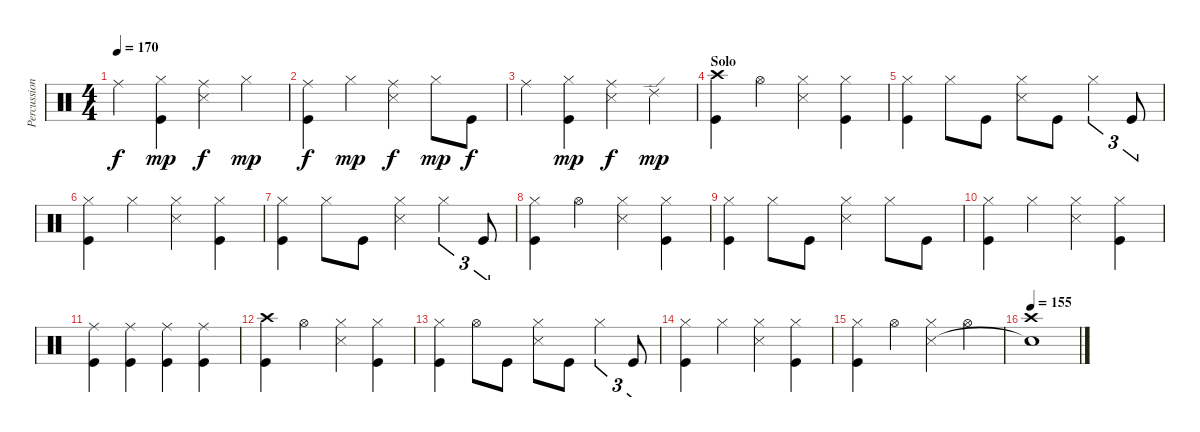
\track ("Percussion" "Percussion") {instrument percussion}
\staff {score}
\articulation defaults
\ts (4 4)
\tempo 170
\clef neutral
\ks c "Ride (middle)".4{dy f}
("Hi-Hat (closed)" "Kick (hit)").4{dy mp} ("Ride (middle)" "Snare (side stick) 3").4{dy f} "Hi-Hat (closed)".4{dy mp} |
("Ride (middle)" "Kick (hit)").4{dy f} "Hi-Hat (closed)".4{dy mp} ("Ride (middle)" "Snare (side stick) 3").4{dy f} "Hi-Hat (closed)".8{dy mp} "Kick (hit)".8{dy f} |
"Ride (middle)".4 ("Hi-Hat (closed)" "Kick (hit)").4{dy mp} ("Ride (middle)" "Snare (side stick) 3").4{dy f} "Ride (edge) 2".4{dy mp} |
\section ("" "Solo")
("Crash high (hit)" "Kick (hit)").4 "Hi-Hat (open)".4 ("Hi-Hat (closed)" "Snare (side stick) 3").4 ("Hi-Hat (closed)" "Kick (hit)").4 |
("Hi-Hat (closed)" "Kick (hit)").4 "Hi-Hat (closed)".8 "Kick (hit)".8 ("Hi-Hat (closed)" "Snare (side stick) 3").8 "Kick (hit)".8 "Hi-Hat (closed)".4{tu (3 2)} "Kick (hit)".8{tu (3 2)} |
("Hi-Hat (closed)" "Kick (hit)").4 "Hi-Hat (closed)".4 ("Hi-Hat (closed)" "Snare (side stick) 3").4 ("Hi-Hat (closed)" "Kick (hit)").4 |
("Hi-Hat (closed)" "Kick (hit)").4 "Hi-Hat (closed)".8 "Kick (hit)".8 ("Hi-Hat (closed)" "Snare (side stick) 3").4 "Hi-Hat (closed)".4{tu (3 2)} "Kick (hit)".8{tu (3 2)} |
("Hi-Hat (closed)" "Kick (hit)").4 "Hi-Hat (open)".4 ("Hi-Hat (closed)" "Snare (side stick) 3").4 ("Hi-Hat (closed)" "Kick (hit)").4 |
("Hi-Hat (closed)" "Kick (hit)").4 "Hi-Hat (closed)".8 "Kick (hit)".8 ("Hi-Hat (closed)" "Snare (side stick) 3").4 "Hi-Hat (closed)".8 "Kick (hit)".8 |
("Hi-Hat (closed)" "Kick (hit)").4 "Hi-Hat (closed)".4 ("Hi-Hat (closed)" "Snare (side stick) 3").4 ("Hi-Hat (closed)" "Kick (hit)").4 |
("Ride (middle)" "Kick (hit)").4 ("Ride (middle)" "Kick (hit)").4 ("Ride (middle)" "Kick (hit)").4 ("Ride (middle)" "Kick (hit)").4 |
("Crash high (hit)" "Kick (hit)").4 "Hi-Hat (open)".4 ("Hi-Hat (closed)" "Snare (side stick) 3").4 ("Hi-Hat (closed)" "Kick (hit)").4 |
("Hi-Hat (closed)" "Kick (hit)").4 "Hi-Hat (open)".8 "Kick (hit)".8 ("Hi-Hat (closed)" "Snare (side stick) 3").8 "Kick (hit)".8 "Hi-Hat (closed)".4{tu (3 2)} "Kick (hit)".8{tu (3 2)} |
("Hi-Hat (closed)" "Kick (hit)").4 "Hi-Hat (closed)".4 ("Hi-Hat (closed)" "Snare (side stick) 3").4 ("Hi-Hat (closed)" "Kick (hit)").4 |
("Hi-Hat (closed)" "Kick (hit)").4 "Hi-Hat (open)".4 ("Hi-Hat (closed)" "Snare (side stick) 3").4 "Hi-Hat (open)".4 |
\tempo 155
("Crash high (hit)" "Snare (hit)"{t}).1
